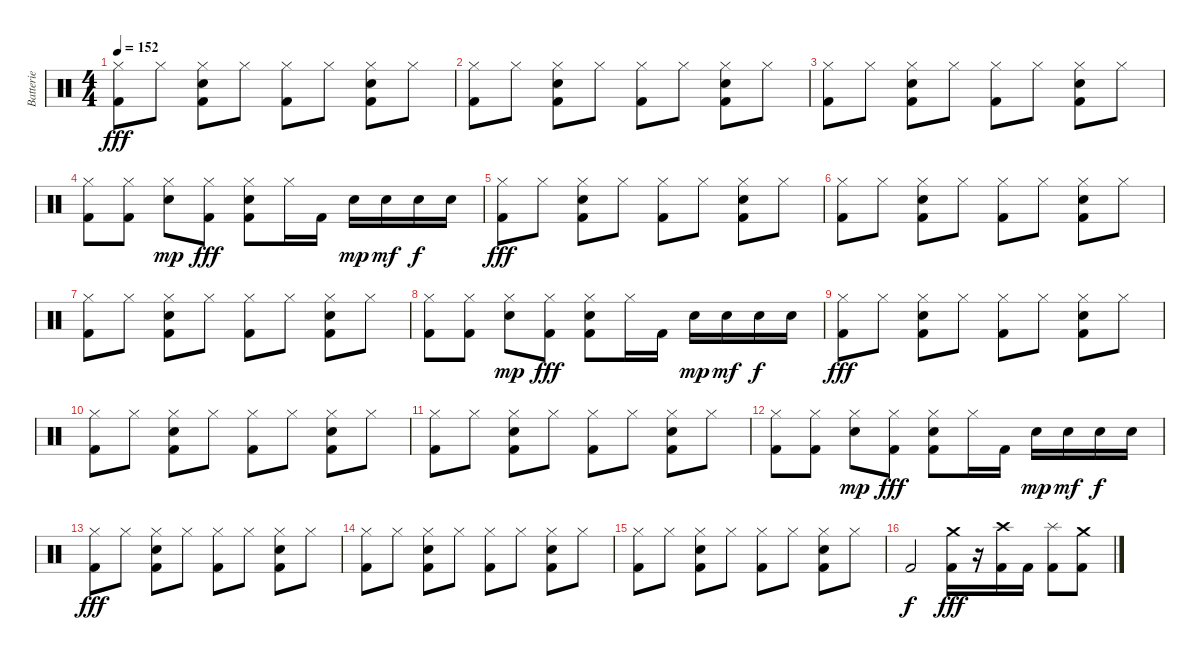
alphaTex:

\track ("Batterie" "Batterie") {instrument percussion}
\staff {score}
\articulation defaults
\ts (4 4)
\tempo 152
\clef neutral
\ks c
("Hi-Hat (closed)" "Kick (hit) 2").8{dy fff} "Hi-Hat (closed)".8 ("Hi-Hat (closed)" "Snare (hit) 2" "Kick (hit) 2").8 "Hi-Hat (closed)".8 ("Hi-Hat (closed)" "Kick (hit) 2").8 "Hi-Hat (closed)".8 ("Hi-Hat (closed)" "Snare (hit) 2" "Kick (hit) 2").8 "Hi-Hat (closed)".8 |
("Hi-Hat (closed)" "Kick (hit) 2").8 "Hi-Hat (closed)".8 ("Hi-Hat (closed)" "Snare (hit) 2" "Kick (hit) 2").8 "Hi-Hat (closed)".8 ("Hi-Hat (closed)" "Kick (hit) 2").8 "Hi-Hat (closed)".8 ("Hi-Hat (closed)" "Snare (hit) 2" "Kick (hit) 2").8 "Hi-Hat (closed)".8 |
("Hi-Hat (closed)" "Kick (hit) 2").8 "Hi-Hat (closed)".8 ("Hi-Hat (closed)" "Snare (hit) 2" "Kick (hit) 2").8 "Hi-Hat (closed)".8 ("Hi-Hat (closed)" "Kick (hit) 2").8 "Hi-Hat (closed)".8 ("Hi-Hat (closed)" "Snare (hit) 2" "Kick (hit) 2").8 "Hi-Hat (closed)".8 |
("Hi-Hat (closed)" "Kick (hit) 2").8 ("Hi-Hat (closed)" "Kick (hit) 2").8 ("Hi-Hat (closed)" "Snare (hit) 2").8{dy mp} ("Hi-Hat (closed)" "Kick (hit) 2").8{dy fff} ("Hi-Hat (closed)" "Snare (hit) 2" "Kick (hit) 2").8 "Hi-Hat (closed)".16 "Kick (hit) 2".16 "Snare (hit) 2".16{dy mp} "Snare (hit) 2".16{dy mf} "Snare (hit) 2".16{dy f} "Snare (hit) 2".16 |
("Hi-Hat (closed)" "Kick (hit) 2").8{dy fff} "Hi-Hat (closed)".8 ("Hi-Hat (closed)" "Snare (hit) 2" "Kick (hit) 2").8 "Hi-Hat (closed)".8 ("Hi-Hat (closed)" "Kick (hit) 2").8 "Hi-Hat (closed)".8 ("Hi-Hat (closed)" "Snare (hit) 2" "Kick (hit) 2").8 "Hi-Hat (closed)".8 |
("Hi-Hat (closed)" "Kick (hit) 2").8 "Hi-Hat (closed)".8 ("Hi-Hat (closed)" "Snare (hit) 2" "Kick (hit) 2").8 "Hi-Hat (closed)".8 ("Hi-Hat (closed)" "Kick (hit) 2").8 "Hi-Hat (closed)".8 ("Hi-Hat (closed)" "Snare (hit) 2" "Kick (hit) 2").8 "Hi-Hat (closed)".8 |
("Hi-Hat (closed)" "Kick (hit) 2").8 "Hi-Hat (closed)".8 ("Hi-Hat (closed)" "Snare (hit) 2" "Kick (hit) 2").8 "Hi-Hat (closed)".8 ("Hi-Hat (closed)" "Kick (hit) 2").8 "Hi-Hat (closed)".8 ("Hi-Hat (closed)" "Snare (hit) 2" "Kick (hit) 2").8 "Hi-Hat (closed)".8 |
("Hi-Hat (closed)" "Kick (hit) 2").8 ("Hi-Hat (closed)" "Kick (hit) 2").8 ("Hi-Hat (closed)" "Snare (hit) 2").8{dy mp} ("Hi-Hat (closed)" "Kick (hit) 2").8{dy fff} ("Hi-Hat (closed)" "Snare (hit) 2" "Kick (hit) 2").8 "Hi-Hat (closed)".16 "Kick (hit) 2".16 "Snare (hit) 2".16{dy mp} "Snare (hit) 2".16{dy mf} "Snare (hit) 2".16{dy f} "Snare (hit) 2".16 |
("Hi-Hat (closed)" "Kick (hit) 2").8{dy fff} "Hi-Hat (closed)".8 ("Hi-Hat (closed)" "Snare (hit) 2" "Kick (hit) 2").8 "Hi-Hat (closed)".8 ("Hi-Hat (closed)" "Kick (hit) 2").8 "Hi-Hat (closed)".8 ("Hi-Hat (closed)" "Snare (hit) 2" "Kick (hit) 2").8 "Hi-Hat (closed)".8 |
("Hi-Hat (closed)" "Kick (hit) 2").8 "Hi-Hat (closed)".8 ("Hi-Hat (closed)" "Snare (hit) 2" "Kick (hit) 2").8 "Hi-Hat (closed)".8 ("Hi-Hat (closed)" "Kick (hit) 2").8 "Hi-Hat (closed)".8 ("Hi-Hat (closed)" "Snare (hit) 2" "Kick (hit) 2").8 "Hi-Hat (closed)".8 |
("Hi-Hat (closed)" "Kick (hit) 2").8 "Hi-Hat (closed)".8 ("Hi-Hat (closed)" "Snare (hit) 2" "Kick (hit) 2").8 "Hi-Hat (closed)".8 ("Hi-Hat (closed)" "Kick (hit) 2").8 "Hi-Hat (closed)".8 ("Hi-Hat (closed)" "Snare (hit) 2" "Kick (hit) 2").8 "Hi-Hat (closed)".8 |
("Hi-Hat (closed)" "Kick (hit) 2").8 ("Hi-Hat (closed)" "Kick (hit) 2").8 ("Hi-Hat (closed)" "Snare (hit) 2").8{dy mp} ("Hi-Hat (closed)" "Kick (hit) 2").8{dy fff} ("Hi-Hat (closed)" "Snare (hit) 2" "Kick (hit) 2").8 "Hi-Hat (closed)".16 "Kick (hit) 2".16 "Snare (hit) 2".16{dy mp} "Snare (hit) 2".16{dy mf} "Snare (hit) 2".16{dy f} "Snare (hit) 2".16 |
("Hi-Hat (closed)" "Kick (hit) 2").8{dy fff} "Hi-Hat (closed)".8 ("Hi-Hat (closed)" "Snare (hit) 2" "Kick (hit) 2").8 "Hi-Hat (closed)".8 ("Hi-Hat (closed)" "Kick (hit) 2").8 "Hi-Hat (closed)".8 ("Hi-Hat (closed)" "Snare (hit) 2" "Kick (hit) 2").8 "Hi-Hat (closed)".8 |
("Hi-Hat (closed)" "Kick (hit) 2").8 "Hi-Hat (closed)".8 ("Hi-Hat (closed)" "Snare (hit) 2" "Kick (hit) 2").8 "Hi-Hat (closed)".8 ("Hi-Hat (closed)" "Kick (hit) 2").8 "Hi-Hat (closed)".8 ("Hi-Hat (closed)" "Snare (hit) 2" "Kick (hit) 2").8 "Hi-Hat (closed)".8 |
("Hi-Hat (closed)" "Kick (hit) 2").8 "Hi-Hat (closed)".8 ("Hi-Hat (closed)" "Snare (hit) 2" "Kick (hit) 2").8 "Hi-Hat (closed)".8 ("Hi-Hat (closed)" "Kick (hit) 2").8 "Hi-Hat (closed)".8 ("Hi-Hat (closed)" "Snare (hit) 2" "Kick (hit) 2").8 "Hi-Hat (closed)".8 |
"Kick (hit) 2".2{dy f} ("Crash medium (hit)" "Kick (hit) 2").16{dy fff} r.16 ("Crash high (hit)" "Kick (hit) 2").16 "Kick (hit) 2".16 ("Splash (hit)" "Kick (hit) 2").8 ("Crash medium (hit)" "Kick (hit) 2").8
